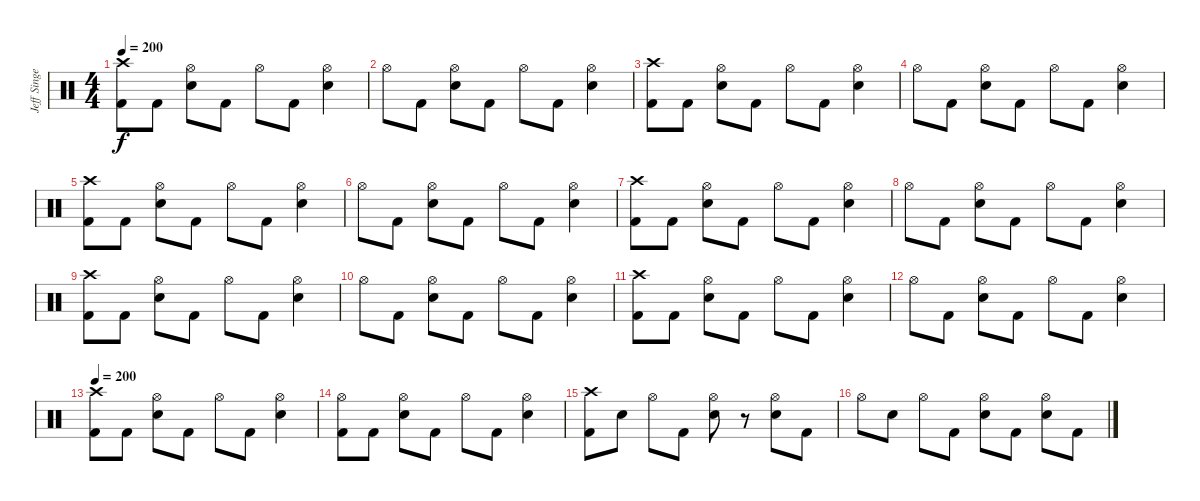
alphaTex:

\track ("Jeff Singer" "Jeff Singe") {instrument percussion}
\staff {score}
\articulation defaults
\ts (4 4)
\tempo 200
\clef neutral
\ks c
("Crash high (hit)" "Kick (hit) 2").8{dy f} "Kick (hit) 2".8 ("Hi-Hat (open)" "Snare (hit) 2").8 "Kick (hit) 2".8 "Hi-Hat (open)".8 "Kick (hit) 2".8 ("Hi-Hat (open)" "Snare (hit) 2").4 |
"Hi-Hat (open)".8 "Kick (hit) 2".8 ("Hi-Hat (open)" "Snare (hit) 2").8 "Kick (hit) 2".8 "Hi-Hat (open)".8 "Kick (hit) 2".8 ("Hi-Hat (open)" "Snare (hit) 2").4 |
("Crash high (hit)" "Kick (hit) 2").8 "Kick (hit) 2".8 ("Hi-Hat (open)" "Snare (hit) 2").8 "Kick (hit) 2".8 "Hi-Hat (open)".8 "Kick (hit) 2".8 ("Hi-Hat (open)" "Snare (hit) 2").4 |
"Hi-Hat (open)".8 "Kick (hit) 2".8 ("Hi-Hat (open)" "Snare (hit) 2").8 "Kick (hit) 2".8 "Hi-Hat (open)".8 "Kick (hit) 2".8 ("Hi-Hat (open)" "Snare (hit) 2").4 |
("Crash high (hit)" "Kick (hit) 2").8 "Kick (hit) 2".8 ("Hi-Hat (open)" "Snare (hit) 2").8 "Kick (hit) 2".8 "Hi-Hat (open)".8 "Kick (hit) 2".8 ("Hi-Hat (open)" "Snare (hit) 2").4 |
"Hi-Hat (open)".8 "Kick (hit) 2".8 ("Hi-Hat (open)" "Snare (hit) 2").8 "Kick (hit) 2".8 "Hi-Hat (open)".8 "Kick (hit) 2".8 ("Hi-Hat (open)" "Snare (hit) 2").4 |
("Crash high (hit)" "Kick (hit) 2").8 "Kick (hit) 2".8 ("Hi-Hat (open)" "Snare (hit) 2").8 "Kick (hit) 2".8 "Hi-Hat (open)".8 "Kick (hit) 2".8 ("Hi-Hat (open)" "Snare (hit) 2").4 |
"Hi-Hat (open)".8 "Kick (hit) 2".8 ("Hi-Hat (open)" "Snare (hit) 2").8 "Kick (hit) 2".8 "Hi-Hat (open)".8 "Kick (hit) 2".8 ("Hi-Hat (open)" "Snare (hit) 2").4 |
("Crash high (hit)" "Kick (hit) 2").8 "Kick (hit) 2".8 ("Hi-Hat (open)" "Snare (hit) 2").8 "Kick (hit) 2".8 "Hi-Hat (open)".8 "Kick (hit) 2".8 ("Hi-Hat (open)" "Snare (hit) 2").4 |
"Hi-Hat (open)".8 "Kick (hit) 2".8 ("Hi-Hat (open)" "Snare (hit) 2").8 "Kick (hit) 2".8 "Hi-Hat (open)".8 "Kick (hit) 2".8 ("Hi-Hat (open)" "Snare (hit) 2").4 |
("Crash high (hit)" "Kick (hit) 2").8 "Kick (hit) 2".8 ("Hi-Hat (open)" "Snare (hit) 2").8 "Kick (hit) 2".8 "Hi-Hat (open)".8 "Kick (hit) 2".8 ("Hi-Hat (open)" "Snare (hit) 2").4 |
"Hi-Hat (open)".8 "Kick (hit) 2".8 ("Hi-Hat (open)" "Snare (hit) 2").8 "Kick (hit) 2".8 "Hi-Hat (open)".8 "Kick (hit) 2".8 ("Hi-Hat (open)" "Snare (hit) 2").4 |
\tempo 200
("Crash high (hit)" "Kick (hit) 2").8 "Kick (hit) 2".8 ("Hi-Hat (open)" "Snare (hit) 2").8 "Kick (hit) 2".8 "Hi-Hat (open)".8 "Kick (hit) 2".8 ("Hi-Hat (open)" "Snare (hit) 2").4 |
("Hi-Hat (open)" "Kick (hit) 2").8 "Kick (hit) 2".8 ("Hi-Hat (open)" "Snare (hit) 2").8 "Kick (hit) 2".8 "Hi-Hat (open)".8 "Kick (hit) 2".8 ("Hi-Hat (open)" "Snare (hit) 2").4 |
("Crash high (hit)" "Kick (hit) 2").8 "Snare (hit) 2".8 "Hi-Hat (open)".8 "Kick (hit) 2".8 ("Hi-Hat (open)" "Snare (hit) 2").8 r.8 ("Hi-Hat (open)" "Snare (hit) 2").8 "Kick (hit) 2".8 |
"Hi-Hat (open)".8 "Snare (hit) 2".8 "Hi-Hat (open)".8 "Kick (hit) 2".8 ("Hi-Hat (open)" "Snare (hit) 2").8 "Kick (hit) 2".8 ("Hi-Hat (open)" "Snare (hit) 2").8 "Kick (hit) 2".8
